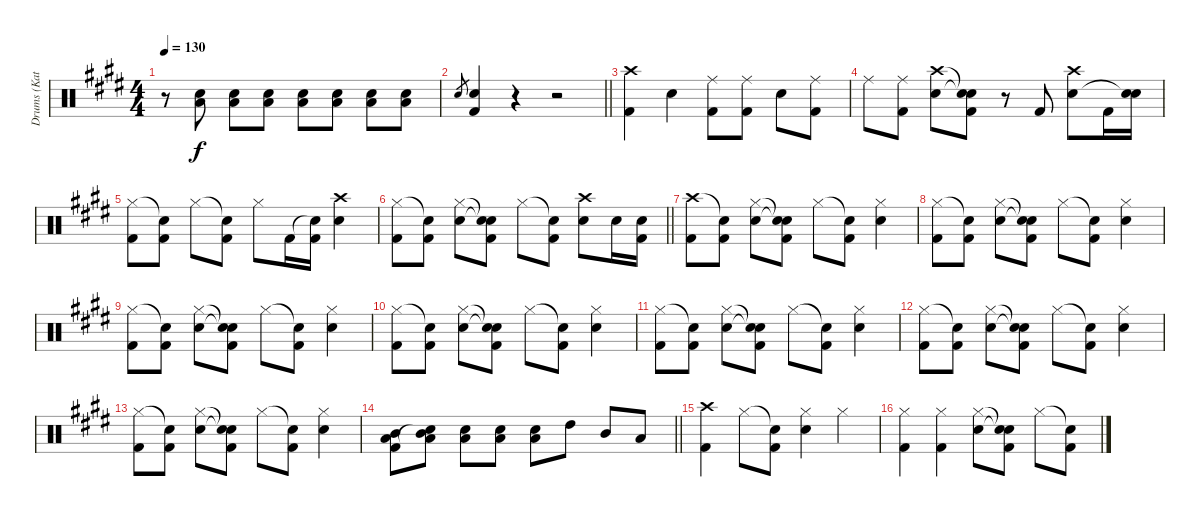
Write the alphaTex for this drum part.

\track ("Drums (Katsuji)" "Drums (Kat") {instrument percussion}
\staff {score}
\articulation defaults
\ts (4 4)
\tempo 130
\clef neutral
\ks e
r.8{dy f} ("Snare (hit) 2" "Low Tom (hit)").8 ("Snare (hit) 2" "Low Tom (hit)").8 ("Snare (hit) 2" "Low Tom (hit)").8 ("Snare (hit) 2" "Low Tom (hit)").8 ("Snare (hit) 2" "Low Tom (hit)").8 ("Snare (hit) 2" "Low Tom (hit)").8 ("Snare (hit) 2" "Low Tom (hit)").8 |
\barLineRight lightlight "Snare (hit) 2".8{gr}
("Snare (hit) 2" "Kick (hit) 2").4 r.4 r.2 |
("Crash high (hit)" "Kick (hit) 2").4 "Snare (hit) 2".4 ("Ride (middle)" "Kick (hit) 2").8 ("Ride (middle)" "Kick (hit) 2").8 "Snare (hit) 2".8 ("Ride (middle)" "Kick (hit) 2").8 |
"Ride (middle)".8 ("Ride (middle)" "Kick (hit) 2").8 ("Crash high (hit)" "Snare (hit) 2").8 ("Snare (hit)"{t} "Snare (hit)"{t} "Kick (hit) 2").8 r.8 "Kick (hit) 2".8 ("Crash high (hit)" "Snare (hit) 2").8 "Kick (hit) 2".16 ("Snare (hit) 2" "Snare (hit)"{t}).16 |
("Hi-Hat (closed)" "Kick (hit) 2").8 ("Snare (hit)"{t} "Kick (hit) 2").8 "Hi-Hat (closed)".8 ("Snare (hit)"{t} "Kick (hit) 2").8 "Hi-Hat (closed)".8 "Kick (hit) 2".16 ("Snare (hit)"{t} "Kick (hit) 2").16 ("Crash high (hit)" "Snare (hit) 2").4 |
\barLineRight lightlight
("Hi-Hat (closed)" "Kick (hit) 2").8 ("Snare (hit)"{t} "Kick (hit) 2").8 ("Hi-Hat (closed)" "Snare (hit) 2").8 ("Snare (hit)"{t} "Snare (hit)"{t} "Kick (hit) 2").8 "Hi-Hat (closed)".8 ("Snare (hit)"{t} "Kick (hit) 2").8 ("Crash high (hit)" "Snare (hit) 2").8 "Snare (hit) 2".16 ("Snare (hit) 2" "Kick (hit) 2").16 |
("Crash high (hit)" "Kick (hit) 2").8 ("Snare (hit)"{t} "Kick (hit) 2").8 ("Hi-Hat (closed)" "Snare (hit) 2").8 ("Snare (hit)"{t} "Snare (hit)"{t} "Kick (hit) 2").8 "Hi-Hat (closed)".8 ("Snare (hit)"{t} "Kick (hit) 2").8 ("Hi-Hat (closed)" "Snare (hit) 2").4 |
("Hi-Hat (closed)" "Kick (hit) 2").8 ("Snare (hit)"{t} "Kick (hit) 2").8 ("Hi-Hat (closed)" "Snare (hit) 2").8 ("Snare (hit)"{t} "Snare (hit)"{t} "Kick (hit) 2").8 "Hi-Hat (closed)".8 ("Snare (hit)"{t} "Kick (hit) 2").8 ("Hi-Hat (closed)" "Snare (hit) 2").4 |
("Hi-Hat (closed)" "Kick (hit) 2").8 ("Snare (hit)"{t} "Kick (hit) 2").8 ("Hi-Hat (closed)" "Snare (hit) 2").8 ("Snare (hit)"{t} "Snare (hit)"{t} "Kick (hit) 2").8 "Hi-Hat (closed)".8 ("Snare (hit)"{t} "Kick (hit) 2").8 ("Hi-Hat (closed)" "Snare (hit) 2").4 |
("Hi-Hat (closed)" "Kick (hit) 2").8 ("Snare (hit)"{t} "Kick (hit) 2").8 ("Hi-Hat (closed)" "Snare (hit) 2").8 ("Snare (hit)"{t} "Snare (hit)"{t} "Kick (hit) 2").8 "Hi-Hat (closed)".8 ("Snare (hit)"{t} "Kick (hit) 2").8 ("Hi-Hat (closed)" "Snare (hit) 2").4 |
("Hi-Hat (closed)" "Kick (hit) 2").8 ("Snare (hit)"{t} "Kick (hit) 2").8 ("Hi-Hat (closed)" "Snare (hit) 2").8 ("Snare (hit)"{t} "Snare (hit)"{t} "Kick (hit) 2").8 "Hi-Hat (closed)".8 ("Snare (hit)"{t} "Kick (hit) 2").8 ("Hi-Hat (closed)" "Snare (hit) 2").4 |
("Hi-Hat (closed)" "Kick (hit) 2").8 ("Snare (hit)"{t} "Kick (hit) 2").8 ("Hi-Hat (closed)" "Snare (hit) 2").8 ("Snare (hit)"{t} "Snare (hit)"{t} "Kick (hit) 2").8 "Hi-Hat (closed)".8 ("Snare (hit)"{t} "Kick (hit) 2").8 ("Hi-Hat (closed)" "Snare (hit) 2").4 |
("Hi-Hat (closed)" "Kick (hit) 2").8 ("Snare (hit)"{t} "Kick (hit) 2").8 ("Hi-Hat (closed)" "Snare (hit) 2").8 ("Snare (hit)"{t} "Snare (hit)"{t} "Kick (hit) 2").8 "Hi-Hat (closed)".8 ("Snare (hit)"{t} "Kick (hit) 2").8 ("Hi-Hat (closed)" "Snare (hit) 2").4 |
\barLineRight lightlight
("Mid Tom (hit)" "Low Tom (hit)" "Kick (hit) 2").8 ("Mid Tom (hit)" "Low Tom (hit)" "Snare (hit)"{t}).8 ("Snare (hit) 2" "Low Tom (hit)").8 ("Snare (hit) 2" "Low Tom (hit)").8 ("Snare (hit) 2" "Low Tom (hit)").8 "High Tom (hit)".8 "Mid Tom (hit)".8 "Low Tom (hit)".8 |
("Crash high (hit)" "Kick (hit) 2").4 "Hi-Hat (closed)".8 ("Snare (hit)"{t} "Kick (hit) 2").8 ("Hi-Hat (closed)" "Snare (hit) 2").4 "Hi-Hat (closed)".4 |
("Hi-Hat (closed)" "Kick (hit) 2").4 ("Hi-Hat (closed)" "Kick (hit) 2").4 ("Hi-Hat (closed)" "Snare (hit) 2").8 ("Snare (hit)"{t} "Snare (hit)"{t} "Kick (hit) 2").8 "Hi-Hat (closed)".8 ("Snare (hit)"{t} "Kick (hit) 2").8
